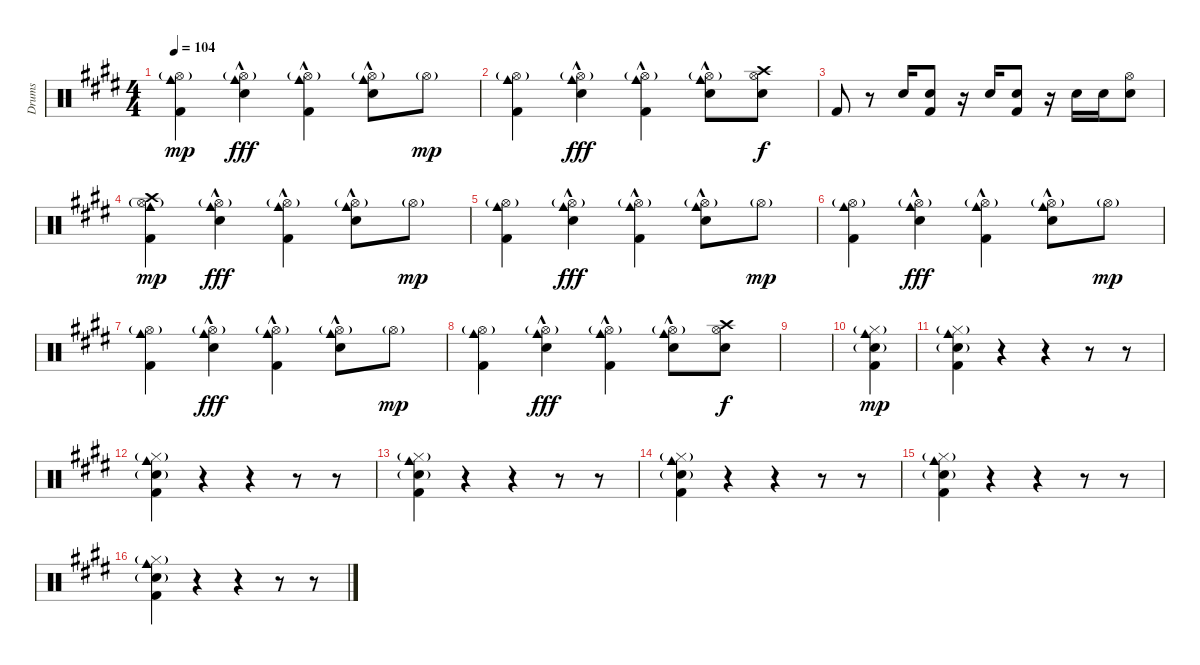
\track ("Drums" "Drums") {instrument percussion}
\staff {score}
\articulation defaults
\ts (4 4)
\tempo 104
\clef neutral
\ks e
("Cowbell medium (hit)" "Hi-Hat (open)"{g} "Kick (hit) 2").4{dy mp} ("Cowbell medium (hit)" "Hi-Hat (open)"{g} "Electric Snare (hit)"{hac}).4{dy fff} ("Cowbell medium (hit)" "Hi-Hat (open)"{g} "Kick (hit) 2"{hac}).4 ("Cowbell medium (hit)" "Hi-Hat (open)"{g} "Electric Snare (hit)"{hac}).8 "Hi-Hat (open)"{g}.8{dy mp} |
("Cowbell medium (hit)" "Hi-Hat (open)"{g} "Kick (hit) 2").4 ("Cowbell medium (hit)" "Hi-Hat (open)"{g} "Electric Snare (hit)"{hac}).4{dy fff} ("Cowbell medium (hit)" "Hi-Hat (open)"{g} "Kick (hit) 2"{hac}).4 ("Cowbell medium (hit)" "Hi-Hat (open)"{g} "Electric Snare (hit)"{hac}).8 ("Electric Snare (hit)" "Crash high (hit)" "Hi-Hat (open)").8{dy f} |
"Kick (hit) 2".8 r.8 "Electric Snare (hit)".16 ("Kick (hit) 2" "Electric Snare (hit)").8 r.16 "Electric Snare (hit)".16 ("Kick (hit) 2" "Electric Snare (hit)").8 r.16 "Electric Snare (hit)".16 "Electric Snare (hit)".16 ("Hi-Hat (open)" "Electric Snare (hit)").8 |
("Cowbell medium (hit)" "Hi-Hat (open)"{g} "Crash high (hit)" "Kick (hit) 2").4{dy mp} ("Cowbell medium (hit)" "Hi-Hat (open)"{g} "Electric Snare (hit)"{hac}).4{dy fff} ("Cowbell medium (hit)" "Hi-Hat (open)"{g} "Kick (hit) 2"{hac}).4 ("Cowbell medium (hit)" "Hi-Hat (open)"{g} "Electric Snare (hit)"{hac}).8 "Hi-Hat (open)"{g}.8{dy mp} |
("Cowbell medium (hit)" "Hi-Hat (open)"{g} "Kick (hit) 2").4 ("Cowbell medium (hit)" "Hi-Hat (open)"{g} "Electric Snare (hit)"{hac}).4{dy fff} ("Cowbell medium (hit)" "Hi-Hat (open)"{g} "Kick (hit) 2"{hac}).4 ("Cowbell medium (hit)" "Hi-Hat (open)"{g} "Electric Snare (hit)"{hac}).8 "Hi-Hat (open)"{g}.8{dy mp} |
("Cowbell medium (hit)" "Hi-Hat (open)"{g} "Kick (hit) 2").4 ("Cowbell medium (hit)" "Hi-Hat (open)"{g} "Electric Snare (hit)"{hac}).4{dy fff} ("Cowbell medium (hit)" "Hi-Hat (open)"{g} "Kick (hit) 2"{hac}).4 ("Cowbell medium (hit)" "Hi-Hat (open)"{g} "Electric Snare (hit)"{hac}).8 "Hi-Hat (open)"{g}.8{dy mp} |
("Cowbell medium (hit)" "Hi-Hat (open)"{g} "Kick (hit) 2").4 ("Cowbell medium (hit)" "Hi-Hat (open)"{g} "Electric Snare (hit)"{hac}).4{dy fff} ("Cowbell medium (hit)" "Hi-Hat (open)"{g} "Kick (hit) 2"{hac}).4 ("Cowbell medium (hit)" "Hi-Hat (open)"{g} "Electric Snare (hit)"{hac}).8 "Hi-Hat (open)"{g}.8{dy mp} |
("Cowbell medium (hit)" "Hi-Hat (open)"{g} "Kick (hit) 2").4 ("Cowbell medium (hit)" "Hi-Hat (open)"{g} "Electric Snare (hit)"{hac}).4{dy fff} ("Cowbell medium (hit)" "Hi-Hat (open)"{g} "Kick (hit) 2"{hac}).4 ("Cowbell medium (hit)" "Hi-Hat (open)"{g} "Electric Snare (hit)"{hac}).8 ("Electric Snare (hit)" "Crash high (hit)" "Hi-Hat (open)").8{dy f} |
|
("Cowbell medium (hit)" "Hi-Hat (closed)"{g} "Kick (hit) 2" "Electric Snare (hit)"{g}).4{dy mp} |
("Cowbell medium (hit)" "Hi-Hat (closed)"{g} "Kick (hit) 2" "Electric Snare (hit)"{g}).4 r.4 r.4 r.8 r.8 |
("Cowbell medium (hit)" "Hi-Hat (closed)"{g} "Kick (hit) 2" "Electric Snare (hit)"{g}).4 r.4 r.4 r.8 r.8 |
("Cowbell medium (hit)" "Hi-Hat (closed)"{g} "Kick (hit) 2" "Electric Snare (hit)"{g}).4 r.4 r.4 r.8 r.8 |
("Cowbell medium (hit)" "Hi-Hat (closed)"{g} "Kick (hit) 2" "Electric Snare (hit)"{g}).4 r.4 r.4 r.8 r.8 |
("Cowbell medium (hit)" "Hi-Hat (closed)"{g} "Kick (hit) 2" "Electric Snare (hit)"{g}).4 r.4 r.4 r.8 r.8 |
("Cowbell medium (hit)" "Hi-Hat (closed)"{g} "Kick (hit) 2" "Electric Snare (hit)"{g}).4 r.4 r.4 r.8 r.8
